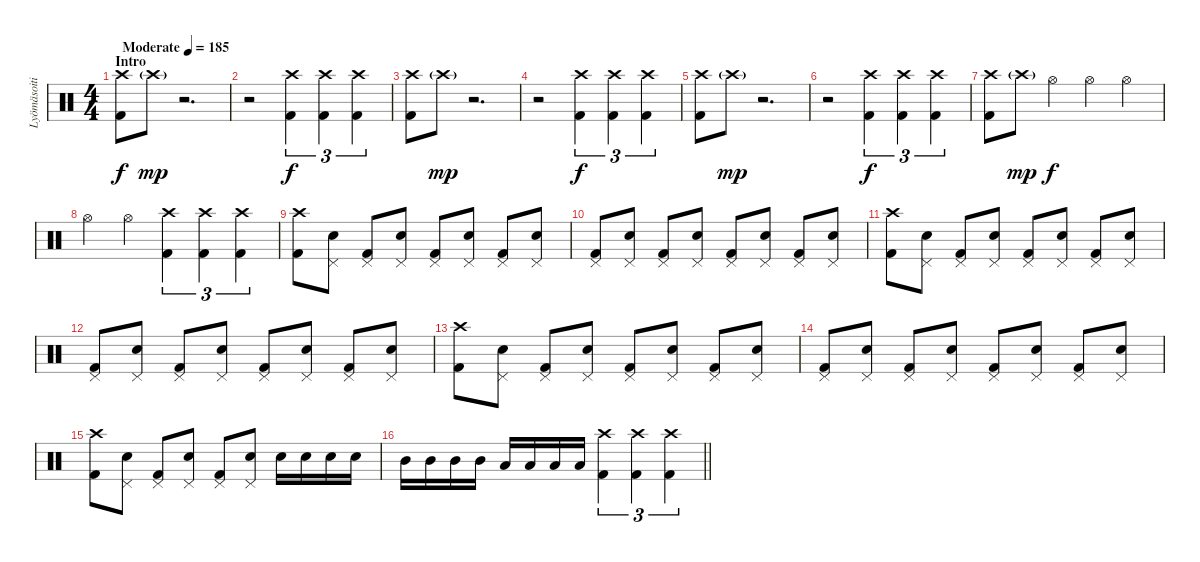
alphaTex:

\track ("Lyömäsoitin" "Lyömäsoiti") {instrument percussion}
\staff {score}
\articulation defaults
\ts (4 4)
\section ("" "Intro")
\tempo (185 "Moderate")
\clef neutral
\ks c
("Crash high (hit)" "Kick (hit) 2").8{dy f} "Crash high (hit)"{g}.8{dy mp} r.2{d} |
r.2 ("Crash high (hit)" "Kick (hit) 2").4{tu (3 2) dy f} ("Crash high (hit)" "Kick (hit) 2").4{tu (3 2)} ("Crash high (hit)" "Kick (hit) 2").4{tu (3 2)} |
("Crash high (hit)" "Kick (hit) 2").8 "Crash high (hit)"{g}.8{dy mp} r.2{d} |
r.2 ("Crash high (hit)" "Kick (hit) 2").4{tu (3 2) dy f} ("Crash high (hit)" "Kick (hit) 2").4{tu (3 2)} ("Crash high (hit)" "Kick (hit) 2").4{tu (3 2)} |
("Crash high (hit)" "Kick (hit) 2").8 "Crash high (hit)"{g}.8{dy mp} r.2{d} |
r.2 ("Crash high (hit)" "Kick (hit) 2").4{tu (3 2) dy f} ("Crash high (hit)" "Kick (hit) 2").4{tu (3 2)} ("Crash high (hit)" "Kick (hit) 2").4{tu (3 2)} |
("Crash high (hit)" "Kick (hit) 2").8 "Crash high (hit)"{g}.8{dy mp} "Hi-Hat (open)".4{dy f} "Hi-Hat (open)".4 "Hi-Hat (open)".4 |
"Hi-Hat (open)".4 "Hi-Hat (open)".4 ("Crash high (hit)" "Kick (hit) 2").4{tu (3 2)} ("Crash high (hit)" "Kick (hit) 2").4{tu (3 2)} ("Crash high (hit)" "Kick (hit) 2").4{tu (3 2)} |
("Crash high (hit)" "Kick (hit) 2").8 ("Pedal Hi-Hat (hit)" "Electric Snare (hit)").8 ("Pedal Hi-Hat (hit)" "Kick (hit) 2").8 ("Pedal Hi-Hat (hit)" "Electric Snare (hit)").8 ("Pedal Hi-Hat (hit)" "Kick (hit) 2").8 ("Pedal Hi-Hat (hit)" "Electric Snare (hit)").8 ("Pedal Hi-Hat (hit)" "Kick (hit) 2").8 ("Pedal Hi-Hat (hit)" "Electric Snare (hit)").8 |
("Pedal Hi-Hat (hit)" "Kick (hit) 2").8 ("Pedal Hi-Hat (hit)" "Electric Snare (hit)").8 ("Pedal Hi-Hat (hit)" "Kick (hit) 2").8 ("Pedal Hi-Hat (hit)" "Electric Snare (hit)").8 ("Pedal Hi-Hat (hit)" "Kick (hit) 2").8 ("Pedal Hi-Hat (hit)" "Electric Snare (hit)").8 ("Pedal Hi-Hat (hit)" "Kick (hit) 2").8 ("Pedal Hi-Hat (hit)" "Electric Snare (hit)").8 |
("Crash high (hit)" "Kick (hit) 2").8 ("Pedal Hi-Hat (hit)" "Electric Snare (hit)").8 ("Pedal Hi-Hat (hit)" "Kick (hit) 2").8 ("Pedal Hi-Hat (hit)" "Electric Snare (hit)").8 ("Pedal Hi-Hat (hit)" "Kick (hit) 2").8 ("Pedal Hi-Hat (hit)" "Electric Snare (hit)").8 ("Pedal Hi-Hat (hit)" "Kick (hit) 2").8 ("Pedal Hi-Hat (hit)" "Electric Snare (hit)").8 |
("Pedal Hi-Hat (hit)" "Kick (hit) 2").8 ("Pedal Hi-Hat (hit)" "Electric Snare (hit)").8 ("Pedal Hi-Hat (hit)" "Kick (hit) 2").8 ("Pedal Hi-Hat (hit)" "Electric Snare (hit)").8 ("Pedal Hi-Hat (hit)" "Kick (hit) 2").8 ("Pedal Hi-Hat (hit)" "Electric Snare (hit)").8 ("Pedal Hi-Hat (hit)" "Kick (hit) 2").8 ("Pedal Hi-Hat (hit)" "Electric Snare (hit)").8 |
("Crash high (hit)" "Kick (hit) 2").8 ("Pedal Hi-Hat (hit)" "Electric Snare (hit)").8 ("Pedal Hi-Hat (hit)" "Kick (hit) 2").8 ("Pedal Hi-Hat (hit)" "Electric Snare (hit)").8 ("Pedal Hi-Hat (hit)" "Kick (hit) 2").8 ("Pedal Hi-Hat (hit)" "Electric Snare (hit)").8 ("Pedal Hi-Hat (hit)" "Kick (hit) 2").8 ("Pedal Hi-Hat (hit)" "Electric Snare (hit)").8 |
("Pedal Hi-Hat (hit)" "Kick (hit) 2").8 ("Pedal Hi-Hat (hit)" "Electric Snare (hit)").8 ("Pedal Hi-Hat (hit)" "Kick (hit) 2").8 ("Pedal Hi-Hat (hit)" "Electric Snare (hit)").8 ("Pedal Hi-Hat (hit)" "Kick (hit) 2").8 ("Pedal Hi-Hat (hit)" "Electric Snare (hit)").8 ("Pedal Hi-Hat (hit)" "Kick (hit) 2").8 ("Pedal Hi-Hat (hit)" "Electric Snare (hit)").8 |
("Crash high (hit)" "Kick (hit) 2").8 ("Pedal Hi-Hat (hit)" "Electric Snare (hit)").8 ("Pedal Hi-Hat (hit)" "Kick (hit) 2").8 ("Pedal Hi-Hat (hit)" "Electric Snare (hit)").8 ("Pedal Hi-Hat (hit)" "Kick (hit) 2").8 ("Pedal Hi-Hat (hit)" "Electric Snare (hit)").8 "Electric Snare (hit)".16 "Electric Snare (hit)".16 "Electric Snare (hit)".16 "Electric Snare (hit)".16 |
\barLineRight lightlight "Mid Tom (hit)".16 "Mid Tom (hit)".16 "Mid Tom (hit)".16 "Mid Tom (hit)".16 "Low Tom (hit)".16 "Low Tom (hit)".16 "Low Tom (hit)".16 "Low Tom (hit)".16
("Crash high (hit)" "Kick (hit) 2").4{tu (3 2)} ("Crash high (hit)" "Kick (hit) 2").4{tu (3 2)} ("Crash high (hit)" "Kick (hit) 2").4{tu (3 2)}
